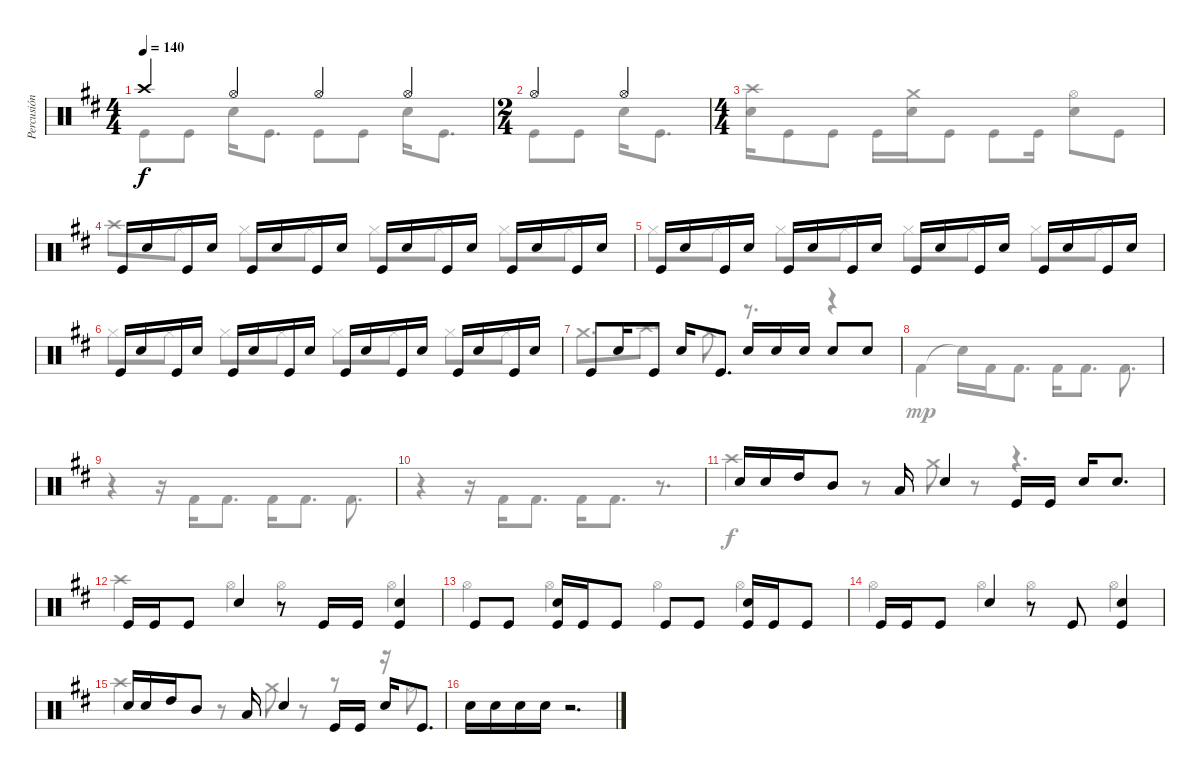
\track ("Percusión" "Percusión") {instrument percussion}
\staff {score}
\articulation defaults
\voice
\ts (4 4)
\tempo 140
\clef neutral
\ks bminor "Crash high (hit)".4{dy f} "Hi-Hat (open)".4 "Hi-Hat (open)".4 "Hi-Hat (open)".4
|
\ts (2 4)
"Hi-Hat (open)".4 "Hi-Hat (open)".4 |
\ts (4 4)
|
"Kick (hit)".16 "Snare (hit) 2".16 "Kick (hit)".16 "Snare (hit) 2".16 "Kick (hit)".16 "Snare (hit) 2".16 "Kick (hit)".16 "Snare (hit) 2".16 "Kick (hit)".16 "Snare (hit) 2".16 "Kick (hit)".16 "Snare (hit) 2".16 "Kick (hit)".16 "Snare (hit) 2".16 "Kick (hit)".16 "Snare (hit) 2".16 |
"Kick (hit)".16 "Snare (hit) 2".16 "Kick (hit)".16 "Snare (hit) 2".16 "Kick (hit)".16 "Snare (hit) 2".16 "Kick (hit)".16 "Snare (hit) 2".16 "Kick (hit)".16 "Snare (hit) 2".16 "Kick (hit)".16 "Snare (hit) 2".16 "Kick (hit)".16 "Snare (hit) 2".16 "Kick (hit)".16 "Snare (hit) 2".16 |
"Kick (hit)".16 "Snare (hit) 2".16 "Kick (hit)".16 "Snare (hit) 2".16 "Kick (hit)".16 "Snare (hit) 2".16 "Kick (hit)".16 "Snare (hit) 2".16 "Kick (hit)".16 "Snare (hit) 2".16 "Kick (hit)".16 "Snare (hit) 2".16 "Kick (hit)".16 "Snare (hit) 2".16 "Kick (hit)".16 "Snare (hit) 2".16 |
"Kick (hit)".8 "Snare (hit) 2".16 "Kick (hit)".8 "Snare (hit) 2".16 "Kick (hit)".8{d} "Snare (hit) 2".16 "Snare (hit) 2".16 "Snare (hit) 2".16 "Snare (hit) 2".8 "Snare (hit) 2".8 |
|
|
|
"Snare (hit) 2".16 "Snare (hit) 2".16 "High Tom (hit)".16 "Mid Tom (hit)".8 "Low Tom (hit)".16 "Snare (hit) 2".4 "Kick (hit)".16 "Kick (hit)".16 "Snare (hit) 2".16 "Snare (hit) 2".8{d} |
"Kick (hit)".16 "Kick (hit)".16 "Kick (hit)".8 "Snare (hit) 2".4 r.8 "Kick (hit)".16 "Kick (hit)".16 ("Snare (hit) 2" "Kick (hit)").4 |
"Kick (hit)".8 "Kick (hit)".8 ("Snare (hit) 2" "Kick (hit)").16 "Kick (hit)".16 "Kick (hit)".8 "Kick (hit)".8 "Kick (hit)".8 ("Snare (hit) 2" "Kick (hit)").16 "Kick (hit)".16 "Kick (hit)".8 |
"Kick (hit)".16 "Kick (hit)".16 "Kick (hit)".8 "Snare (hit) 2".4 r.8 "Kick (hit)".8 ("Snare (hit) 2" "Kick (hit)").4 |
"Snare (hit) 2".16 "Snare (hit) 2".16 "High Tom (hit)".16 "Mid Tom (hit)".8 "Low Tom (hit)".16 "Snare (hit) 2".4 "Kick (hit)".16 "Kick (hit)".16 "Snare (hit) 2".16 "Kick (hit)".8{d} |
"Snare (hit) 2".16 "Snare (hit) 2".16 "Snare (hit) 2".16 "Snare (hit) 2".16 r.2{d}
\voice
\clef neutral
\ottava regular
\simile none
\ks bminor "Kick (hit)".8{dy f} "Kick (hit)".8 "Snare (hit) 2".16 "Kick (hit)".8{d} "Kick (hit)".8 "Kick (hit)".8 "Snare (hit) 2".16 "Kick (hit)".8{d}
|
"Kick (hit)".8 "Kick (hit)".8 "Snare (hit) 2".16 "Kick (hit)".8{d} |
("Crash high (hit)" "Snare (hit) 2").16 "Kick (hit)".8 "Kick (hit)".8 "Kick (hit)".16 ("Crash medium (hit)" "Snare (hit) 2").16 "Kick (hit)".8 "Kick (hit)".8 "Kick (hit)".16 ("Hi-Hat (open)" "Snare (hit) 2").8 "Kick (hit)".8 |
"Crash high (hit)".8 "Hi-Hat (closed)".8 "Hi-Hat (closed)".8 "Hi-Hat (closed)".8 "Hi-Hat (closed)".8 "Hi-Hat (closed)".8 "Hi-Hat (closed)".8 "Hi-Hat (closed)".8 |
"Hi-Hat (closed)".8 "Hi-Hat (closed)".8 "Hi-Hat (closed)".8 "Hi-Hat (closed)".8 "Hi-Hat (closed)".8 "Hi-Hat (closed)".8 "Hi-Hat (closed)".8 "Hi-Hat (closed)".8 |
"Hi-Hat (closed)".8 "Hi-Hat (closed)".8 "Hi-Hat (closed)".8 "Hi-Hat (closed)".8 "Hi-Hat (closed)".8 "Hi-Hat (closed)".8 "Hi-Hat (closed)".8 "Hi-Hat (closed)".8 |
"Crash medium (hit)".8{d} "Crash high (hit)".8{d} "Crash medium (hit)".8{d} r.8{d} r.4 |
"Kick (hit) 2".4{dy mp} "Snare (hit)"{t}.16 "Kick (hit) 2".16 "Kick (hit) 2".8{d} "Kick (hit) 2".16 "Kick (hit) 2".8{d} "Kick (hit) 2".8{d} |
r.4 r.16 "Kick (hit) 2".16 "Kick (hit) 2".8{d} "Kick (hit) 2".16 "Kick (hit) 2".8{d} "Kick (hit) 2".8{d} |
r.4 r.16 "Kick (hit) 2".16 "Kick (hit) 2".8{d} "Kick (hit) 2".16 "Kick (hit) 2".8{d} r.8{d} |
"Crash high (hit)".4{dy f} r.8 "Crash medium (hit)".8 r.8 r.4{d} |
"Crash high (hit)".4 "Hi-Hat (open)".4 "Hi-Hat (open)".4 "Hi-Hat (open)".4 |
"Hi-Hat (open)".4 "Hi-Hat (open)".4 "Hi-Hat (open)".4 "Hi-Hat (open)".4 |
"Hi-Hat (open)".4 "Hi-Hat (open)".4 "Hi-Hat (open)".4 "Hi-Hat (open)".4 |
"Crash high (hit)".4 r.8 "Crash medium (hit)".8 r.8 r.8 r.16 "Hi-Hat (open)".8{d} |
